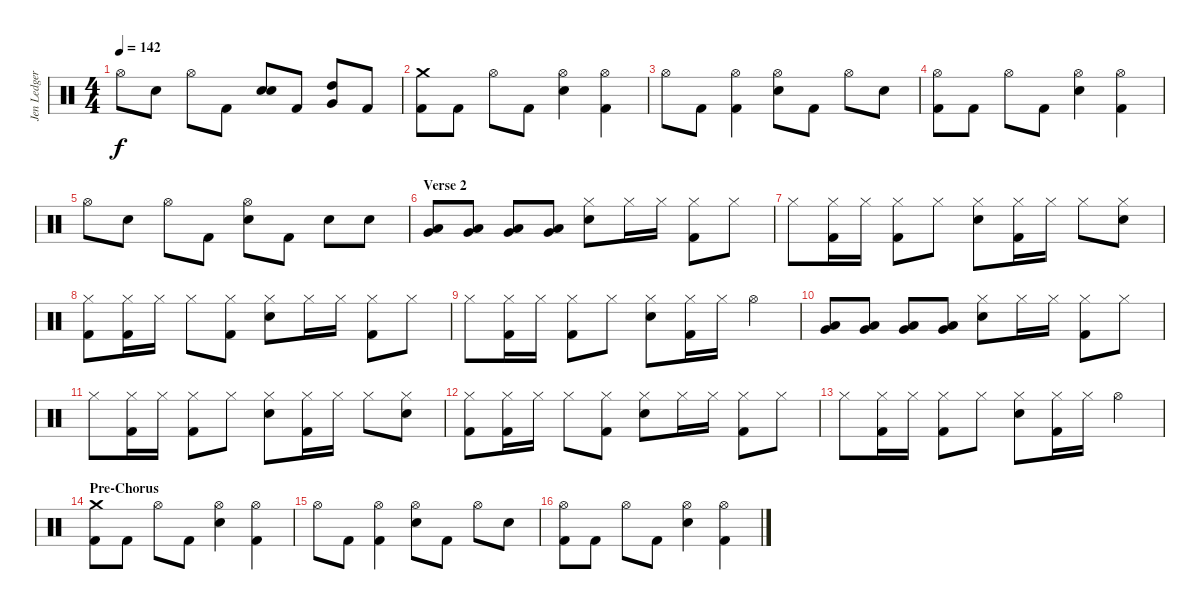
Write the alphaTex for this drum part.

\track ("Jen Ledger" "Jen Ledger") {instrument percussion}
\staff {score}
\articulation defaults
\ts (4 4)
\tempo 142
\clef neutral
\ks c "Hi-Hat (open)".8{dy f} "Electric Snare (hit)".8 "Hi-Hat (open)".8 "Kick (hit) 2".8
("Electric Snare (hit)" "Electric Snare (hit)").8{bd 60} "Kick (hit) 2".8 ("High Tom (hit)" "Very Low Tom (hit)").8 "Kick (hit) 2".8 |
("Crash medium (hit)" "Kick (hit) 2").8 "Kick (hit) 2".8 "Hi-Hat (open)".8 "Kick (hit) 2".8 ("Hi-Hat (open)" "Electric Snare (hit)").4 ("Hi-Hat (open)" "Kick (hit) 2").4 |
"Hi-Hat (open)".8 "Kick (hit) 2".8 ("Hi-Hat (open)" "Kick (hit) 2").4 ("Hi-Hat (open)" "Electric Snare (hit)").8 "Kick (hit) 2".8 "Hi-Hat (open)".8 "Electric Snare (hit)".8 |
("Hi-Hat (open)" "Kick (hit) 2").8 "Kick (hit) 2".8 "Hi-Hat (open)".8 "Kick (hit) 2".8 ("Hi-Hat (open)" "Electric Snare (hit)").4 ("Hi-Hat (open)" "Kick (hit) 2").4 |
"Hi-Hat (open)".8 "Electric Snare (hit)".8 "Hi-Hat (open)".8 "Kick (hit) 2".8 ("Hi-Hat (open)" "Electric Snare (hit)").8 "Kick (hit) 2".8 "Electric Snare (hit)".8 "Electric Snare (hit)".8 |
\section ("" "Verse 2")
("Very Low Tom (hit)" "Low Floor Tom (hit)").8 ("Very Low Tom (hit)" "Low Floor Tom (hit)").8 ("Very Low Tom (hit)" "Low Floor Tom (hit)").8 ("Very Low Tom (hit)" "Low Floor Tom (hit)").8 ("Hi-Hat (closed)" "Electric Snare (hit)").8 "Hi-Hat (closed)".16 "Hi-Hat (closed)".16 ("Hi-Hat (closed)" "Kick (hit) 2").8 "Hi-Hat (closed)".8 |
"Hi-Hat (closed)".8 ("Hi-Hat (closed)" "Kick (hit) 2").16 "Hi-Hat (closed)".16 ("Hi-Hat (closed)" "Kick (hit) 2").8 "Hi-Hat (closed)".8 ("Hi-Hat (closed)" "Electric Snare (hit)").8 ("Hi-Hat (closed)" "Kick (hit) 2").16 "Hi-Hat (closed)".16 "Hi-Hat (closed)".8 ("Hi-Hat (closed)" "Electric Snare (hit)").8 |
("Hi-Hat (closed)" "Kick (hit) 2").8 ("Hi-Hat (closed)" "Kick (hit) 2").16 "Hi-Hat (closed)".16 "Hi-Hat (closed)".8 ("Hi-Hat (closed)" "Kick (hit) 2").8 ("Hi-Hat (closed)" "Electric Snare (hit)").8 "Hi-Hat (closed)".16 "Hi-Hat (closed)".16 ("Hi-Hat (closed)" "Kick (hit) 2").8 "Hi-Hat (closed)".8 |
"Hi-Hat (closed)".8 ("Hi-Hat (closed)" "Kick (hit) 2").16 "Hi-Hat (closed)".16 ("Hi-Hat (closed)" "Kick (hit) 2").8 "Hi-Hat (closed)".8 ("Hi-Hat (closed)" "Electric Snare (hit)").8 ("Hi-Hat (closed)" "Kick (hit) 2").16 "Hi-Hat (closed)".16 "Hi-Hat (open)".4 |
("Very Low Tom (hit)" "Low Floor Tom (hit)").8 ("Very Low Tom (hit)" "Low Floor Tom (hit)").8 ("Very Low Tom (hit)" "Low Floor Tom (hit)").8 ("Very Low Tom (hit)" "Low Floor Tom (hit)").8 ("Hi-Hat (closed)" "Electric Snare (hit)").8 "Hi-Hat (closed)".16 "Hi-Hat (closed)".16 ("Hi-Hat (closed)" "Kick (hit) 2").8 "Hi-Hat (closed)".8 |
"Hi-Hat (closed)".8 ("Hi-Hat (closed)" "Kick (hit) 2").16 "Hi-Hat (closed)".16 ("Hi-Hat (closed)" "Kick (hit) 2").8 "Hi-Hat (closed)".8 ("Hi-Hat (closed)" "Electric Snare (hit)").8 ("Hi-Hat (closed)" "Kick (hit) 2").16 "Hi-Hat (closed)".16 "Hi-Hat (closed)".8 ("Hi-Hat (closed)" "Electric Snare (hit)").8 |
("Hi-Hat (closed)" "Kick (hit) 2").8 ("Hi-Hat (closed)" "Kick (hit) 2").16 "Hi-Hat (closed)".16 "Hi-Hat (closed)".8 ("Hi-Hat (closed)" "Kick (hit) 2").8 ("Hi-Hat (closed)" "Electric Snare (hit)").8 "Hi-Hat (closed)".16 "Hi-Hat (closed)".16 ("Hi-Hat (closed)" "Kick (hit) 2").8 "Hi-Hat (closed)".8 |
"Hi-Hat (closed)".8 ("Hi-Hat (closed)" "Kick (hit) 2").16 "Hi-Hat (closed)".16 ("Hi-Hat (closed)" "Kick (hit) 2").8 "Hi-Hat (closed)".8 ("Hi-Hat (closed)" "Electric Snare (hit)").8 ("Hi-Hat (closed)" "Kick (hit) 2").16 "Hi-Hat (closed)".16 "Hi-Hat (open)".4 |
\section ("" "Pre-Chorus")
("Crash medium (hit)" "Kick (hit) 2").8 "Kick (hit) 2".8 "Hi-Hat (open)".8 "Kick (hit) 2".8 ("Hi-Hat (open)" "Electric Snare (hit)").4 ("Hi-Hat (open)" "Kick (hit) 2").4 |
"Hi-Hat (open)".8 "Kick (hit) 2".8 ("Hi-Hat (open)" "Kick (hit) 2").4 ("Hi-Hat (open)" "Electric Snare (hit)").8 "Kick (hit) 2".8 "Hi-Hat (open)".8 "Electric Snare (hit)".8 |
("Hi-Hat (open)" "Kick (hit) 2").8 "Kick (hit) 2".8 "Hi-Hat (open)".8 "Kick (hit) 2".8 ("Hi-Hat (open)" "Electric Snare (hit)").4 ("Hi-Hat (open)" "Kick (hit) 2").4
